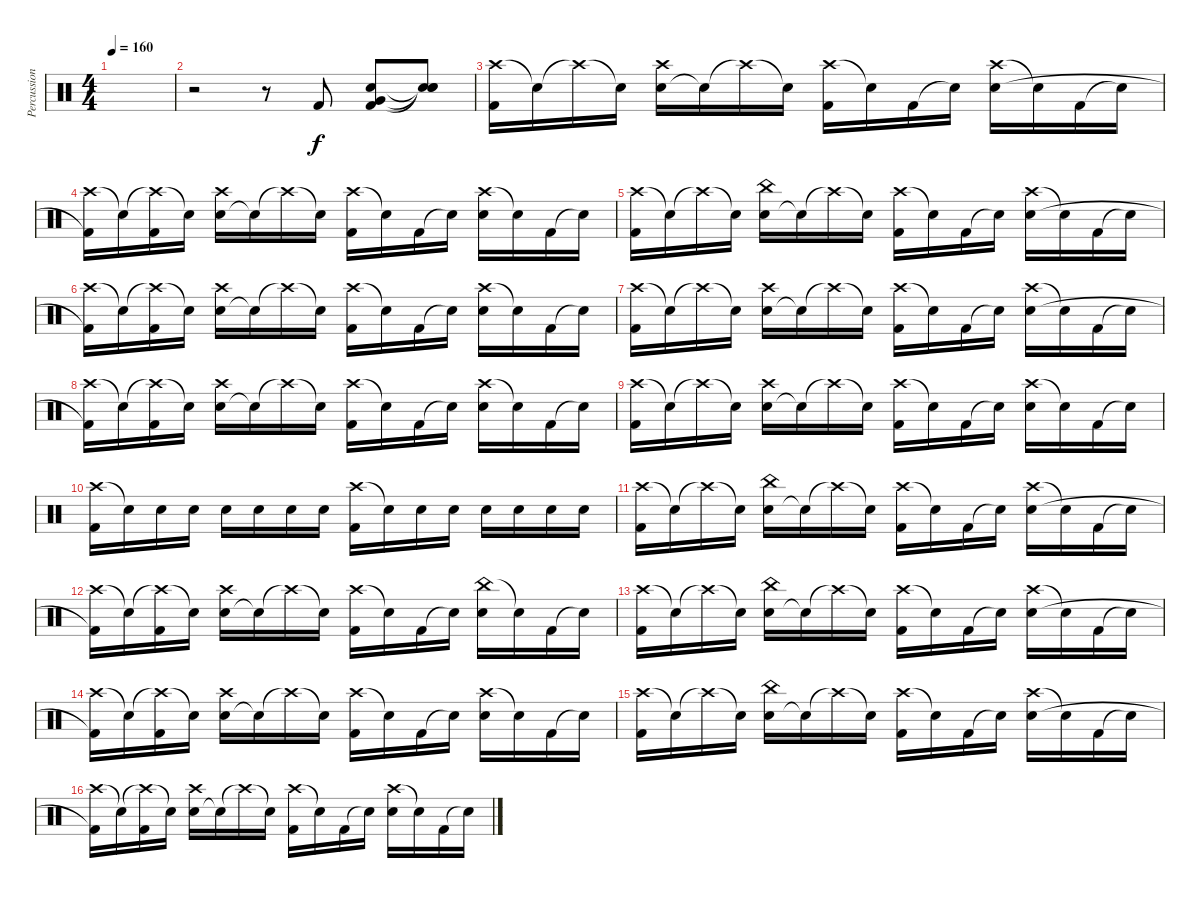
\track ("Percussion" "Percussion") {instrument percussion}
\staff {score}
\articulation defaults
\ts (4 4)
\tempo 160
\clef neutral
\ks c
|
r.2 r.8 "Kick (hit) 2".8 ("Electric Snare (hit)" "Kick (hit) 2" "Very Low Tom (hit)").8 ("Snare (hit)"{t} "Snare (hit)"{t} "Snare (hit)"{t}).8 |
("Crash high (hit)" "Kick (hit) 2").16 "Snare (hit)"{t}.16 "Crash high (hit)"{t}.16 "Snare (hit)"{t}.16 ("Electric Snare (hit)" "Crash high (hit)").16 "Snare (hit)"{t}.16 "Crash high (hit)"{t}.16 "Snare (hit)"{t}.16 ("Crash high (hit)" "Kick (hit) 2").16 "Snare (hit)"{t}.16 "Kick (hit) 2".16 "Snare (hit)"{t}.16 ("Crash high (hit)" "Electric Snare (hit)").16 "Snare (hit)"{t}.16 "Kick (hit) 2".16 "Snare (hit)"{t}.16 |
("Crash high (hit)" "Kick (hit) 2"{t}).16 "Snare (hit)"{t}.16 ("Crash high (hit)"{t} "Kick (hit) 2").16 "Snare (hit)"{t}.16 ("Electric Snare (hit)" "Crash high (hit)").16 "Snare (hit)"{t}.16 "Crash high (hit)"{t}.16 "Snare (hit)"{t}.16 ("Crash high (hit)" "Kick (hit) 2").16 "Snare (hit)"{t}.16 "Kick (hit) 2".16 "Snare (hit)"{t}.16 ("Crash high (hit)" "Electric Snare (hit)").16 "Snare (hit)"{t}.16 "Kick (hit) 2".16 "Snare (hit)"{t}.16 |
("Crash high (hit)" "Kick (hit) 2").16 "Snare (hit)"{t}.16 "Crash high (hit)"{t}.16 "Snare (hit)"{t}.16 ("Electric Snare (hit)" "China (hit)").16 "Snare (hit)"{t}.16 "Crash high (hit)"{t}.16 "Snare (hit)"{t}.16 ("Crash high (hit)" "Kick (hit) 2").16 "Snare (hit)"{t}.16 "Kick (hit) 2".16 "Snare (hit)"{t}.16 ("Crash high (hit)" "Electric Snare (hit)").16 "Snare (hit)"{t}.16 "Kick (hit) 2".16 "Snare (hit)"{t}.16 |
("Crash high (hit)" "Kick (hit) 2"{t}).16 "Snare (hit)"{t}.16 ("Crash high (hit)"{t} "Kick (hit) 2").16 "Snare (hit)"{t}.16 ("Electric Snare (hit)" "Crash high (hit)").16 "Snare (hit)"{t}.16 "Crash high (hit)"{t}.16 "Snare (hit)"{t}.16 ("Crash high (hit)" "Kick (hit) 2").16 "Snare (hit)"{t}.16 "Kick (hit) 2".16 "Snare (hit)"{t}.16 ("Crash high (hit)" "Electric Snare (hit)").16 "Snare (hit)"{t}.16 "Kick (hit) 2".16 "Snare (hit)"{t}.16 |
("Crash high (hit)" "Kick (hit) 2").16 "Snare (hit)"{t}.16 "Crash high (hit)"{t}.16 "Snare (hit)"{t}.16 ("Electric Snare (hit)" "Crash high (hit)").16 "Snare (hit)"{t}.16 "Crash high (hit)"{t}.16 "Snare (hit)"{t}.16 ("Crash high (hit)" "Kick (hit) 2").16 "Snare (hit)"{t}.16 "Kick (hit) 2".16 "Snare (hit)"{t}.16 ("Crash high (hit)" "Electric Snare (hit)").16 "Snare (hit)"{t}.16 "Kick (hit) 2".16 "Snare (hit)"{t}.16 |
("Crash high (hit)" "Kick (hit) 2"{t}).16 "Snare (hit)"{t}.16 ("Crash high (hit)"{t} "Kick (hit) 2").16 "Snare (hit)"{t}.16 ("Electric Snare (hit)" "Crash high (hit)").16 "Snare (hit)"{t}.16 "Crash high (hit)"{t}.16 "Snare (hit)"{t}.16 ("Crash high (hit)" "Kick (hit) 2").16 "Snare (hit)"{t}.16 "Kick (hit) 2".16 "Snare (hit)"{t}.16 ("Crash high (hit)" "Electric Snare (hit)").16 "Snare (hit)"{t}.16 "Kick (hit) 2".16 "Snare (hit)"{t}.16 |
("Crash high (hit)" "Kick (hit) 2").16 "Snare (hit)"{t}.16 "Crash high (hit)"{t}.16 "Snare (hit)"{t}.16 ("Electric Snare (hit)" "Crash high (hit)").16 "Snare (hit)"{t}.16 "Crash high (hit)"{t}.16 "Snare (hit)"{t}.16 ("Crash high (hit)" "Kick (hit) 2").16 "Snare (hit)"{t}.16 "Kick (hit) 2".16 "Snare (hit)"{t}.16 ("Crash high (hit)" "Electric Snare (hit)").16 "Snare (hit)"{t}.16 "Kick (hit) 2".16 "Snare (hit)"{t}.16 |
("Crash high (hit)" "Kick (hit) 2").16 "Snare (hit)"{t}.16 "Electric Snare (hit)".16 "Electric Snare (hit)".16 "Electric Snare (hit)".16 "Electric Snare (hit)".16 "Electric Snare (hit)".16 "Electric Snare (hit)".16 ("Crash high (hit)" "Kick (hit) 2").16 "Snare (hit)"{t}.16 "Electric Snare (hit)".16 "Electric Snare (hit)".16 "Electric Snare (hit)".16 "Electric Snare (hit)".16 "Electric Snare (hit)".16 "Electric Snare (hit)".16 |
("Crash high (hit)" "Kick (hit) 2").16 "Snare (hit)"{t}.16 "Crash high (hit)"{t}.16 "Snare (hit)"{t}.16 ("Electric Snare (hit)" "China (hit)").16 "Snare (hit)"{t}.16 "Crash high (hit)"{t}.16 "Snare (hit)"{t}.16 ("Crash high (hit)" "Kick (hit) 2").16 "Snare (hit)"{t}.16 "Kick (hit) 2".16 "Snare (hit)"{t}.16 ("Crash high (hit)" "Electric Snare (hit)").16 "Snare (hit)"{t}.16 "Kick (hit) 2".16 "Snare (hit)"{t}.16 |
("Crash high (hit)" "Kick (hit) 2"{t}).16 "Snare (hit)"{t}.16 ("Crash high (hit)"{t} "Kick (hit) 2").16 "Snare (hit)"{t}.16 ("Electric Snare (hit)" "Crash high (hit)").16 "Snare (hit)"{t}.16 "Crash high (hit)"{t}.16 "Snare (hit)"{t}.16 ("Crash high (hit)" "Kick (hit) 2").16 "Snare (hit)"{t}.16 "Kick (hit) 2".16 "Snare (hit)"{t}.16 ("China (hit)" "Electric Snare (hit)").16 "Snare (hit)"{t}.16 "Kick (hit) 2".16 "Snare (hit)"{t}.16 |
("Crash high (hit)" "Kick (hit) 2").16 "Snare (hit)"{t}.16 "Crash high (hit)"{t}.16 "Snare (hit)"{t}.16 ("Electric Snare (hit)" "China (hit)").16 "Snare (hit)"{t}.16 "Crash high (hit)"{t}.16 "Snare (hit)"{t}.16 ("Crash high (hit)" "Kick (hit) 2").16 "Snare (hit)"{t}.16 "Kick (hit) 2".16 "Snare (hit)"{t}.16 ("Crash high (hit)" "Electric Snare (hit)").16 "Snare (hit)"{t}.16 "Kick (hit) 2".16 "Snare (hit)"{t}.16 |
("Crash high (hit)" "Kick (hit) 2"{t}).16 "Snare (hit)"{t}.16 ("Crash high (hit)"{t} "Kick (hit) 2").16 "Snare (hit)"{t}.16 ("Electric Snare (hit)" "Crash high (hit)").16 "Snare (hit)"{t}.16 "Crash high (hit)"{t}.16 "Snare (hit)"{t}.16 ("Crash high (hit)" "Kick (hit) 2").16 "Snare (hit)"{t}.16 "Kick (hit) 2".16 "Snare (hit)"{t}.16 ("Crash high (hit)" "Electric Snare (hit)").16 "Snare (hit)"{t}.16 "Kick (hit) 2".16 "Snare (hit)"{t}.16 |
("Crash high (hit)" "Kick (hit) 2").16 "Snare (hit)"{t}.16 "Crash high (hit)"{t}.16 "Snare (hit)"{t}.16 ("Electric Snare (hit)" "China (hit)").16 "Snare (hit)"{t}.16 "Crash high (hit)"{t}.16 "Snare (hit)"{t}.16 ("Crash high (hit)" "Kick (hit) 2").16 "Snare (hit)"{t}.16 "Kick (hit) 2".16 "Snare (hit)"{t}.16 ("Crash high (hit)" "Electric Snare (hit)").16 "Snare (hit)"{t}.16 "Kick (hit) 2".16 "Snare (hit)"{t}.16 |
("Crash high (hit)" "Kick (hit) 2"{t}).16 "Snare (hit)"{t}.16 ("Crash high (hit)"{t} "Kick (hit) 2").16 "Snare (hit)"{t}.16 ("Electric Snare (hit)" "Crash high (hit)").16 "Snare (hit)"{t}.16 "Crash high (hit)"{t}.16 "Snare (hit)"{t}.16 ("Crash high (hit)" "Kick (hit) 2").16 "Snare (hit)"{t}.16 "Kick (hit) 2".16 "Snare (hit)"{t}.16 ("Crash high (hit)" "Electric Snare (hit)").16 "Snare (hit)"{t}.16 "Kick (hit) 2".16 "Snare (hit)"{t}.16
